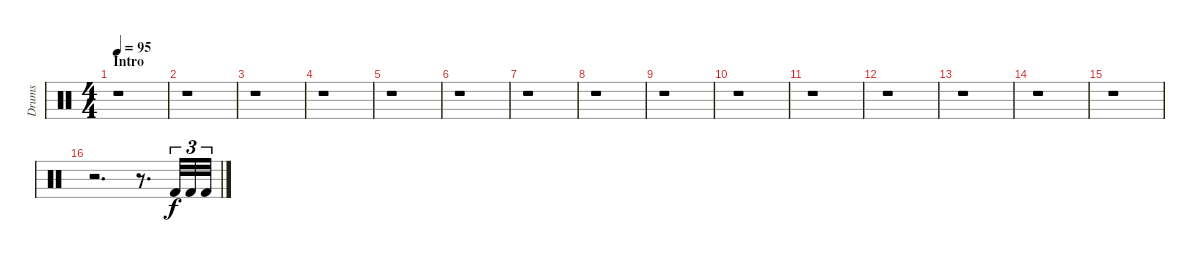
\track ("Drums" "Drums") {instrument percussion}
\staff {score}
\articulation defaults
\ts (4 4)
\section ("" "Intro")
\tempo 95
\clef neutral
\ks c
r.1{dy f} |
r.1 |
r.1 |
r.1 |
r.1 |
r.1 |
r.1 |
r.1 |
r.1 |
r.1 |
r.1 |
r.1 |
r.1 |
r.1 |
r.1 |
r.2{d} r.8{d} "Kick (hit) 2".32{tu (3 2)} "Kick (hit) 2".32{tu (3 2)} "Kick (hit) 2".32{tu (3 2)}
